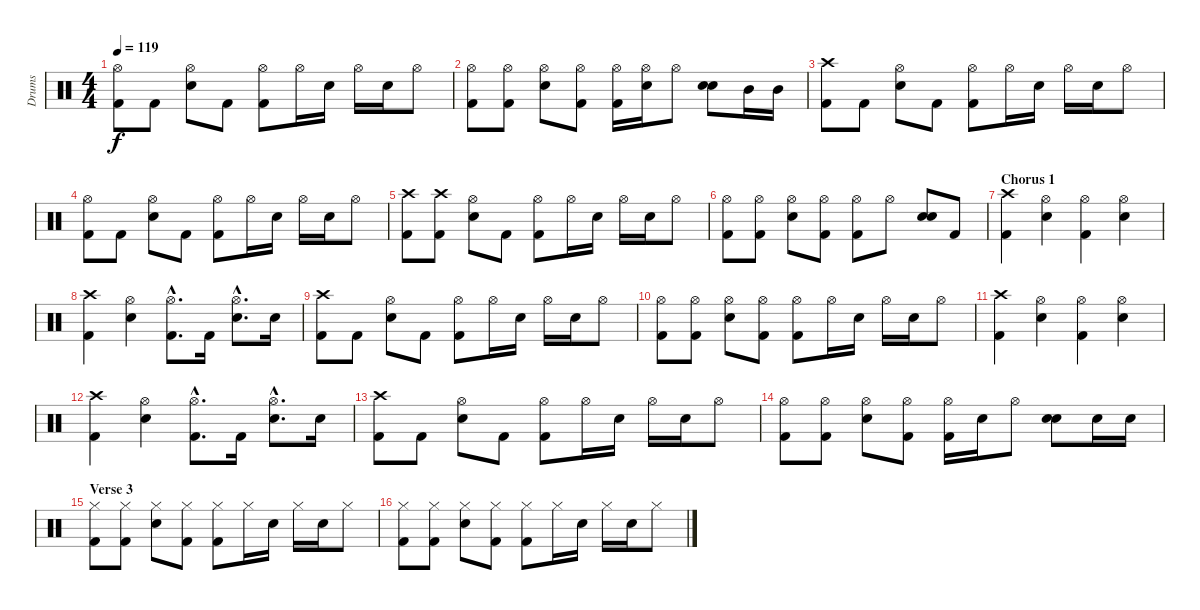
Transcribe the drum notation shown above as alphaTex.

\track ("Drums" "Drums") {instrument percussion}
\staff {score}
\articulation defaults
\ts (4 4)
\tempo 119
\clef neutral
\ks c
("Hi-Hat (open)" "Kick (hit) 2").8{dy f} "Kick (hit) 2".8 ("Hi-Hat (open)" "Electric Snare (hit)").8 "Kick (hit) 2".8 ("Hi-Hat (open)" "Kick (hit) 2").8 "Hi-Hat (open)".16 "Electric Snare (hit)".16 "Hi-Hat (open)".16 "Electric Snare (hit)".16 "Hi-Hat (open)".8 |
("Hi-Hat (open)" "Kick (hit) 2").8 ("Hi-Hat (open)" "Kick (hit) 2").8 ("Hi-Hat (open)" "Electric Snare (hit)").8 ("Hi-Hat (open)" "Kick (hit) 2").8 ("Hi-Hat (open)" "Kick (hit) 2").16 ("Hi-Hat (open)" "Electric Snare (hit)").16 "Hi-Hat (open)".8 ("Electric Snare (hit)" "Electric Snare (hit)").8 "Mid Tom (hit)".16 "Mid Tom (hit)".16 |
("Crash high (hit)" "Kick (hit) 2").8 "Kick (hit) 2".8 ("Hi-Hat (open)" "Electric Snare (hit)").8 "Kick (hit) 2".8 ("Hi-Hat (open)" "Kick (hit) 2").8 "Hi-Hat (open)".16 "Electric Snare (hit)".16 "Hi-Hat (open)".16 "Electric Snare (hit)".16 "Hi-Hat (open)".8 |
("Hi-Hat (open)" "Kick (hit) 2").8 "Kick (hit) 2".8 ("Hi-Hat (open)" "Electric Snare (hit)").8 "Kick (hit) 2".8 ("Hi-Hat (open)" "Kick (hit) 2").8 "Hi-Hat (open)".16 "Electric Snare (hit)".16 "Hi-Hat (open)".16 "Electric Snare (hit)".16 "Hi-Hat (open)".8 |
("Crash high (hit)" "Kick (hit) 2").8 ("Crash high (hit)" "Kick (hit) 2").8 ("Hi-Hat (open)" "Electric Snare (hit)").8 "Kick (hit) 2".8 ("Hi-Hat (open)" "Kick (hit) 2").8 "Hi-Hat (open)".16 "Electric Snare (hit)".16 "Hi-Hat (open)".16 "Electric Snare (hit)".16 "Hi-Hat (open)".8 |
("Hi-Hat (open)" "Kick (hit) 2").8 ("Hi-Hat (open)" "Kick (hit) 2").8 ("Hi-Hat (open)" "Electric Snare (hit)").8 ("Hi-Hat (open)" "Kick (hit) 2").8 ("Hi-Hat (open)" "Kick (hit) 2").8 "Hi-Hat (open)".8 ("Electric Snare (hit)" "Electric Snare (hit)").8 "Kick (hit) 2".8 |
\section ("" "Chorus 1")
("Crash high (hit)" "Kick (hit) 2").4 ("Hi-Hat (open)" "Electric Snare (hit)").4 ("Hi-Hat (open)" "Kick (hit) 2").4 ("Hi-Hat (open)" "Electric Snare (hit)").4 |
("Crash high (hit)" "Kick (hit) 2").4 ("Hi-Hat (open)" "Electric Snare (hit)").4 ("Hi-Hat (open)"{hac} "Kick (hit) 2"{hac}).8{d} "Kick (hit) 2".16 ("Hi-Hat (open)"{hac} "Electric Snare (hit)"{hac}).8{d} "Electric Snare (hit)".16 |
("Crash high (hit)" "Kick (hit) 2").8 "Kick (hit) 2".8 ("Hi-Hat (open)" "Electric Snare (hit)").8 "Kick (hit) 2".8 ("Hi-Hat (open)" "Kick (hit) 2").8 "Hi-Hat (open)".16 "Electric Snare (hit)".16 "Hi-Hat (open)".16 "Electric Snare (hit)".16 "Hi-Hat (open)".8 |
("Hi-Hat (open)" "Kick (hit) 2").8 ("Hi-Hat (open)" "Kick (hit) 2").8 ("Hi-Hat (open)" "Electric Snare (hit)").8 ("Hi-Hat (open)" "Kick (hit) 2").8 ("Hi-Hat (open)" "Kick (hit) 2").8 "Hi-Hat (open)".16 "Electric Snare (hit)".16 "Hi-Hat (open)".16 "Electric Snare (hit)".16 "Hi-Hat (open)".8 |
("Crash high (hit)" "Kick (hit) 2").4 ("Hi-Hat (open)" "Electric Snare (hit)").4 ("Hi-Hat (open)" "Kick (hit) 2").4 ("Hi-Hat (open)" "Electric Snare (hit)").4 |
("Crash high (hit)" "Kick (hit) 2").4 ("Hi-Hat (open)" "Electric Snare (hit)").4 ("Hi-Hat (open)"{hac} "Kick (hit) 2"{hac}).8{d} "Kick (hit) 2".16 ("Hi-Hat (open)"{hac} "Electric Snare (hit)"{hac}).8{d} "Electric Snare (hit)".16 |
("Crash high (hit)" "Kick (hit) 2").8 "Kick (hit) 2".8 ("Hi-Hat (open)" "Electric Snare (hit)").8 "Kick (hit) 2".8 ("Hi-Hat (open)" "Kick (hit) 2").8 "Hi-Hat (open)".16 "Electric Snare (hit)".16 "Hi-Hat (open)".16 "Electric Snare (hit)".16 "Hi-Hat (open)".8 |
("Hi-Hat (open)" "Kick (hit) 2").8 ("Hi-Hat (open)" "Kick (hit) 2").8 ("Hi-Hat (open)" "Electric Snare (hit)").8 ("Hi-Hat (open)" "Kick (hit) 2").8 ("Hi-Hat (open)" "Kick (hit) 2").16 "Electric Snare (hit)".16 "Hi-Hat (open)".8 ("Electric Snare (hit)" "Electric Snare (hit)").8 "Electric Snare (hit)".16 "Electric Snare (hit)".16 |
\section ("" "Verse 3")
("Hi-Hat (closed)" "Kick (hit) 2").8 ("Hi-Hat (closed)" "Kick (hit) 2").8 ("Hi-Hat (closed)" "Electric Snare (hit)").8 ("Hi-Hat (closed)" "Kick (hit) 2").8 ("Hi-Hat (closed)" "Kick (hit) 2").8 "Hi-Hat (closed)".16 "Electric Snare (hit)".16 "Hi-Hat (closed)".16 "Electric Snare (hit)".16 "Hi-Hat (closed)".8 |
("Hi-Hat (closed)" "Kick (hit) 2").8 ("Hi-Hat (closed)" "Kick (hit) 2").8 ("Hi-Hat (closed)" "Electric Snare (hit)").8 ("Hi-Hat (closed)" "Kick (hit) 2").8 ("Hi-Hat (closed)" "Kick (hit) 2").8 "Hi-Hat (closed)".16 "Electric Snare (hit)".16 "Hi-Hat (closed)".16 "Electric Snare (hit)".16 "Hi-Hat (closed)".8
